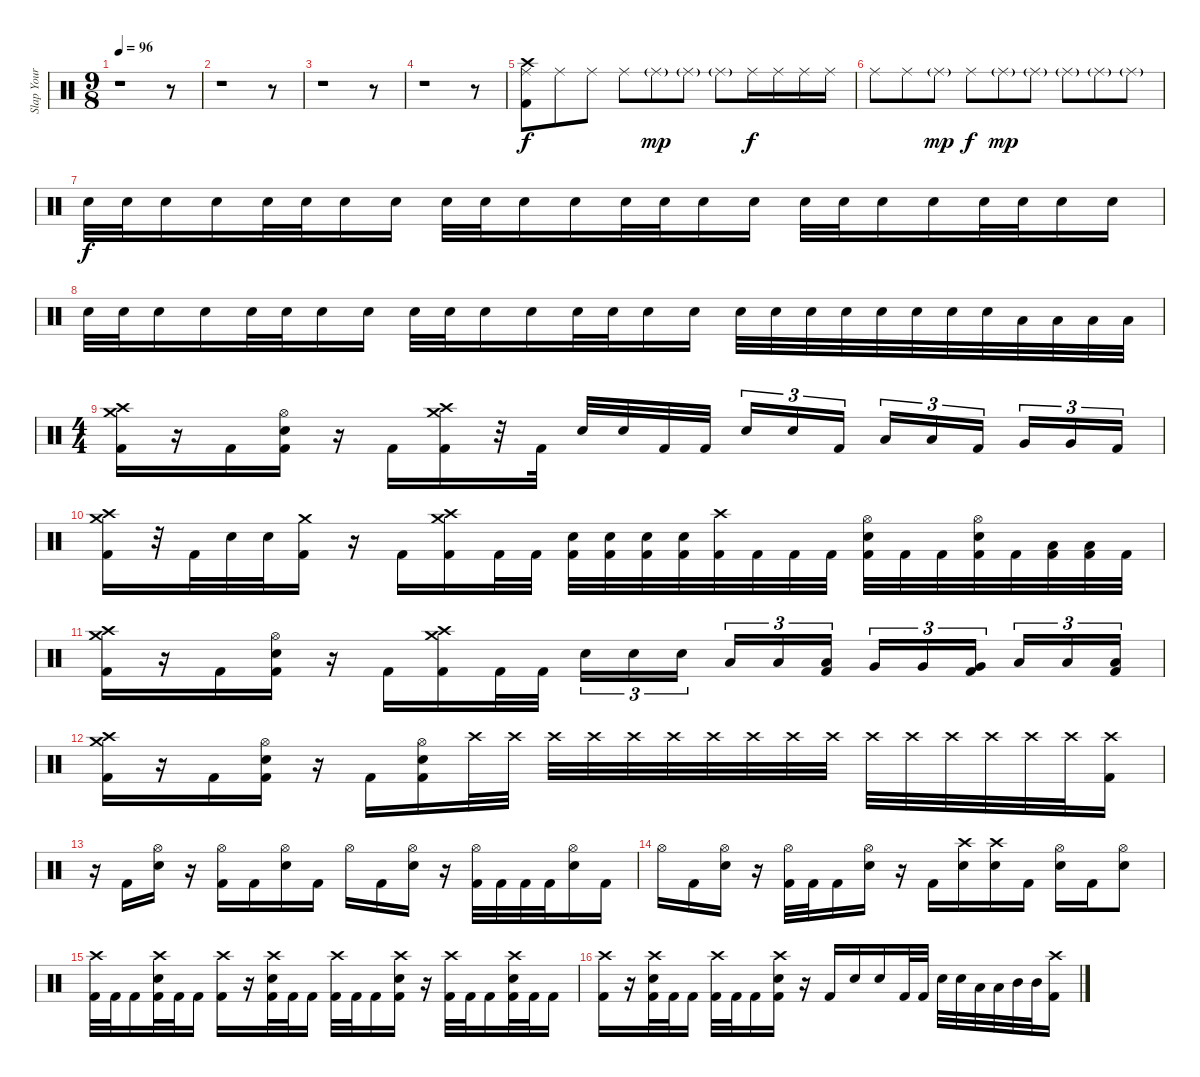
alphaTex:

\track ("Slap Your Sticks" "Slap Your ") {instrument percussion}
\staff {score}
\articulation defaults
\ts (9 8)
\tempo 96
\clef neutral
\ks c
r.1{dy f} r.8 |
r.1 r.8 |
r.1 r.8 |
r.1 r.8 |
("Crash high (hit)" "Ride (middle)" "Kick (hit) 2").8{volume 9} "Ride (middle)".8 "Ride (middle)".8 "Ride (middle)".8 "Ride (middle)"{g}.8{dy mp} "Ride (middle)"{g}.8 "Ride (middle)"{g}.8 "Ride (middle)".16{dy f} "Ride (middle)".16 "Ride (middle)".16 "Ride (middle)".16 |
"Ride (middle)".8 "Ride (middle)".8 "Ride (middle)"{g}.8{dy mp} "Ride (middle)".8{dy f} "Ride (middle)"{g}.8{dy mp} "Ride (middle)"{g}.8 "Ride (middle)"{g}.8 "Ride (middle)"{g}.8 "Ride (middle)"{g}.8 |
"Snare (hit) 2".32{dy f} "Snare (hit) 2".32 "Snare (hit) 2".16 "Snare (hit) 2".16 "Snare (hit) 2".32 "Snare (hit) 2".32 "Snare (hit) 2".16 "Snare (hit) 2".16 "Snare (hit) 2".32 "Snare (hit) 2".32 "Snare (hit) 2".16 "Snare (hit) 2".16 "Snare (hit) 2".32 "Snare (hit) 2".32 "Snare (hit) 2".16 "Snare (hit) 2".16 "Snare (hit) 2".32 "Snare (hit) 2".32 "Snare (hit) 2".16 "Snare (hit) 2".16 "Snare (hit) 2".32 "Snare (hit) 2".32 "Snare (hit) 2".16 "Snare (hit) 2".16 |
"Snare (hit) 2".32 "Snare (hit) 2".32 "Snare (hit) 2".16 "Snare (hit) 2".16 "Snare (hit) 2".32 "Snare (hit) 2".32 "Snare (hit) 2".16 "Snare (hit) 2".16 "Snare (hit) 2".32 "Snare (hit) 2".32 "Snare (hit) 2".16 "Snare (hit) 2".16 "Snare (hit) 2".32 "Snare (hit) 2".32 "Snare (hit) 2".16 "Snare (hit) 2".16 "Snare (hit) 2".32 "Snare (hit) 2".32 "Snare (hit) 2".32 "Snare (hit) 2".32 "Snare (hit) 2".32{volume 13} "Snare (hit) 2".32 "Snare (hit) 2".32 "Snare (hit) 2".32 "Low Tom (hit)".32 "Low Tom (hit)".32 "Low Tom (hit)".32 "Low Tom (hit)".32 |
\ts (4 4)
("Crash high (hit)" "Crash medium (hit)" "Kick (hit) 2").16 r.16 "Kick (hit) 2".16 ("Hi-Hat (open)" "Snare (hit) 2" "Kick (hit) 2").16 r.16 "Kick (hit) 2".16 ("Crash high (hit)" "Crash medium (hit)" "Kick (hit) 2").16 r.32 "Kick (hit) 2".32 "Snare (hit) 2".32 "Snare (hit) 2".32 "Kick (hit) 2".32 "Kick (hit) 2".32 "Snare (hit) 2".16{tu (3 2)} "Snare (hit) 2".16{tu (3 2)} "Kick (hit) 2".16{tu (3 2)} "Low Tom (hit)".16{tu (3 2)} "Low Tom (hit)".16{tu (3 2)} "Kick (hit) 2".16{tu (3 2)} "Very Low Tom (hit)".16{tu (3 2)} "Very Low Tom (hit)".16{tu (3 2)} "Kick (hit) 2".16{tu (3 2)} |
("Crash high (hit)" "Crash medium (hit)" "Kick (hit) 2").16 r.32 "Kick (hit) 2".32 "Snare (hit) 2".32 "Snare (hit) 2".32 ("Crash medium (hit)" "Kick (hit) 2").16 r.16 "Kick (hit) 2".16 ("Crash high (hit)" "Crash medium (hit)" "Kick (hit) 2").16 "Kick (hit) 2".32 "Kick (hit) 2".32 ("Snare (hit) 2" "Kick (hit) 2").32 ("Snare (hit) 2" "Kick (hit) 2").32 ("Snare (hit) 2" "Kick (hit) 2").32 ("Snare (hit) 2" "Kick (hit) 2").32 ("Crash high (hit)" "Kick (hit) 2").32 "Kick (hit) 2".32 "Kick (hit) 2".32 "Kick (hit) 2".32 ("Hi-Hat (open)" "Snare (hit) 2" "Kick (hit) 2").32 "Kick (hit) 2".32 "Kick (hit) 2".32 ("Hi-Hat (open)" "Snare (hit) 2" "Kick (hit) 2").32 "Kick (hit) 2".32 ("Low Tom (hit)" "Kick (hit) 2").32 ("Low Tom (hit)" "Kick (hit) 2").32 "Kick (hit) 2".32 |
("Crash high (hit)" "Crash medium (hit)" "Kick (hit) 2").16 r.16 "Kick (hit) 2".16 ("Hi-Hat (open)" "Snare (hit) 2" "Kick (hit) 2").16 r.16 "Kick (hit) 2".16 ("Crash high (hit)" "Crash medium (hit)" "Kick (hit) 2").16 "Kick (hit) 2".32 "Kick (hit) 2".32 "Snare (hit) 2".16{tu (3 2)} "Snare (hit) 2".16{tu (3 2)} "Snare (hit) 2".16{tu (3 2)} "Low Tom (hit)".16{tu (3 2)} "Low Tom (hit)".16{tu (3 2)} ("Low Tom (hit)" "Kick (hit) 2").16{tu (3 2)} "Very Low Tom (hit)".16{tu (3 2)} "Very Low Tom (hit)".16{tu (3 2)} ("Very Low Tom (hit)" "Kick (hit) 2").16{tu (3 2)} "Low Floor Tom (hit)".16{tu (3 2)} "Low Floor Tom (hit)".16{tu (3 2)} ("Low Floor Tom (hit)" "Kick (hit) 2").16{tu (3 2)} |
("Crash high (hit)" "Crash medium (hit)" "Kick (hit) 2").16 r.16 "Kick (hit) 2".16 ("Hi-Hat (open)" "Snare (hit) 2" "Kick (hit) 2").16 r.16 "Kick (hit) 2".16 ("Hi-Hat (open)" "Snare (hit) 2" "Kick (hit) 2").16 "Crash high (hit)".32{volume 0} "Crash high (hit)".32{volume 13} "Crash high (hit)".32 "Crash high (hit)".32 "Crash high (hit)".32 "Crash high (hit)".32 "Crash high (hit)".32 "Crash high (hit)".32 "Crash high (hit)".32 "Crash high (hit)".32 "Crash high (hit)".32 "Crash high (hit)".32 "Crash high (hit)".32 "Crash high (hit)".32 "Crash high (hit)".32 "Crash high (hit)".32 ("Crash high (hit)" "Kick (hit) 2").16{volume 13} |
r.16 "Kick (hit) 2".16 ("Hi-Hat (open)" "Snare (hit) 2").16 r.16 ("Hi-Hat (open)" "Kick (hit) 2").16 "Kick (hit) 2".16 ("Hi-Hat (open)" "Snare (hit) 2").16 "Kick (hit) 2".16 "Hi-Hat (open)".16 "Kick (hit) 2".16 ("Hi-Hat (open)" "Snare (hit) 2").16 r.16 ("Hi-Hat (open)" "Kick (hit) 2").32 "Kick (hit) 2".32 "Kick (hit) 2".32 "Kick (hit) 2".32 ("Hi-Hat (open)" "Snare (hit) 2").16 "Kick (hit) 2".16 |
"Hi-Hat (open)".16 "Kick (hit) 2".16 ("Hi-Hat (open)" "Snare (hit) 2").16 r.16 ("Hi-Hat (open)" "Kick (hit) 2").32 "Kick (hit) 2".32 "Kick (hit) 2".16 ("Hi-Hat (open)" "Snare (hit) 2").16 r.16 "Kick (hit) 2".16 ("Crash high (hit)" "Snare (hit) 2").16 ("Crash high (hit)" "Snare (hit) 2").16 "Kick (hit) 2".16 ("Hi-Hat (open)" "Snare (hit) 2").16 "Kick (hit) 2".16 ("Hi-Hat (open)" "Snare (hit) 2").8 |
("Crash high (hit)" "Kick (hit) 2").32 "Kick (hit) 2".32 "Kick (hit) 2".16 ("Crash high (hit)" "Snare (hit) 2" "Kick (hit) 2").32 "Kick (hit) 2".32 "Kick (hit) 2".16 ("Crash high (hit)" "Kick (hit) 2").16 r.16 ("Crash high (hit)" "Snare (hit) 2" "Kick (hit) 2").32 "Kick (hit) 2".32 "Kick (hit) 2".16 ("Crash high (hit)" "Kick (hit) 2").32 "Kick (hit) 2".32 "Kick (hit) 2".16 ("Crash high (hit)" "Snare (hit) 2" "Kick (hit) 2").16 r.16 ("Crash high (hit)" "Kick (hit) 2").32 "Kick (hit) 2".32 "Kick (hit) 2".16 ("Crash high (hit)" "Snare (hit) 2" "Kick (hit) 2").32 "Kick (hit) 2".32 "Kick (hit) 2".16 |
("Crash high (hit)" "Kick (hit) 2").16 r.16 ("Crash high (hit)" "Snare (hit) 2" "Kick (hit) 2").32 "Kick (hit) 2".32 "Kick (hit) 2".16 ("Crash high (hit)" "Kick (hit) 2").32 "Kick (hit) 2".32 "Kick (hit) 2".16 ("Crash high (hit)" "Snare (hit) 2" "Kick (hit) 2").16 r.16 "Kick (hit) 2".16 "Snare (hit) 2".16 "Snare (hit) 2".16 "Kick (hit) 2".32 "Kick (hit) 2".32 "Snare (hit) 2".32 "Snare (hit) 2".32 "Low Tom (hit)".32 "Low Tom (hit)".32 "Mid Tom (hit)".32 "Mid Tom (hit)".32 ("Crash high (hit)" "Kick (hit) 2").16
